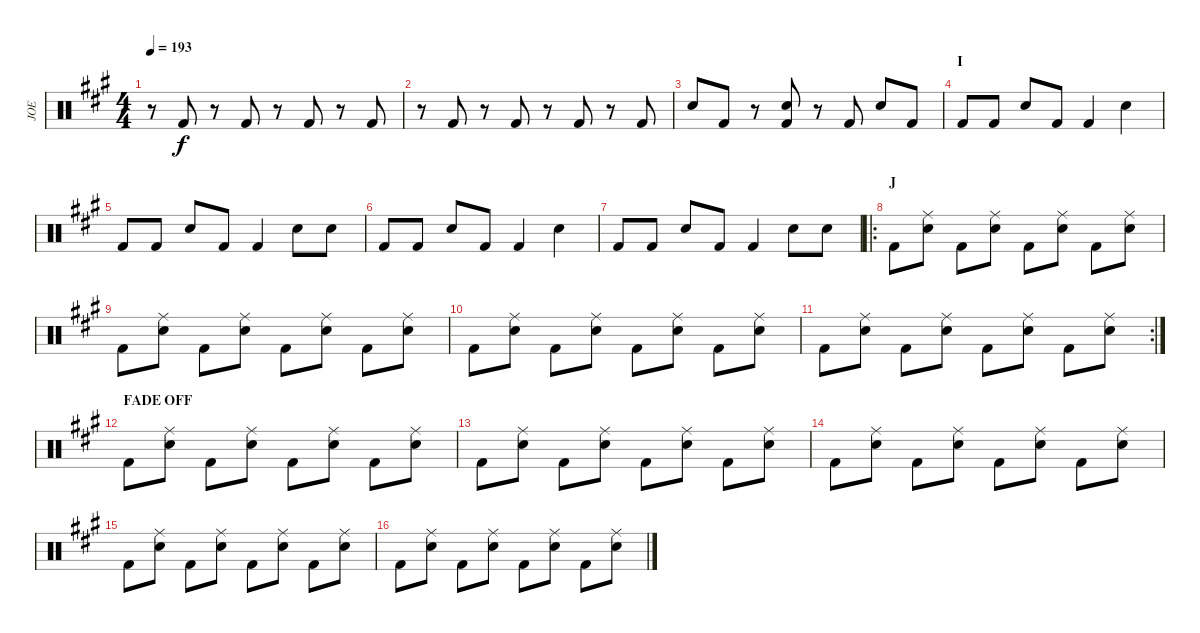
\track ("JOE" "JOE") {instrument percussion}
\staff {score}
\articulation defaults
\ts (4 4)
\tempo 193
\clef neutral
\ks a
r.8{dy f} "Kick (hit) 2".8 r.8 "Kick (hit) 2".8 r.8 "Kick (hit) 2".8 r.8 "Kick (hit) 2".8 |
r.8 "Kick (hit) 2".8 r.8 "Kick (hit) 2".8 r.8 "Kick (hit) 2".8 r.8 "Kick (hit) 2".8 |
"Snare (hit) 2".8 "Kick (hit) 2".8 r.8 ("Snare (hit) 2" "Kick (hit) 2").8 r.8 "Kick (hit) 2".8 "Snare (hit) 2".8 "Kick (hit) 2".8 |
\section ("" "I")
"Kick (hit) 2".8 "Kick (hit) 2".8 "Snare (hit) 2".8 "Kick (hit) 2".8 "Kick (hit) 2".4 "Snare (hit) 2".4 |
"Kick (hit) 2".8 "Kick (hit) 2".8 "Snare (hit) 2".8 "Kick (hit) 2".8 "Kick (hit) 2".4 "Snare (hit) 2".8 "Snare (hit) 2".8 |
"Kick (hit) 2".8 "Kick (hit) 2".8 "Snare (hit) 2".8 "Kick (hit) 2".8 "Kick (hit) 2".4 "Snare (hit) 2".4 |
"Kick (hit) 2".8 "Kick (hit) 2".8 "Snare (hit) 2".8 "Kick (hit) 2".8 "Kick (hit) 2".4 "Snare (hit) 2".8 "Snare (hit) 2".8 |
\ro
\section ("" "J")
"Kick (hit) 2".8 ("Ride (middle)" "Snare (hit) 2").8 "Kick (hit) 2".8 ("Ride (middle)" "Snare (hit) 2").8 "Kick (hit) 2".8 ("Ride (middle)" "Snare (hit) 2").8 "Kick (hit) 2".8 ("Ride (middle)" "Snare (hit) 2").8 |
"Kick (hit) 2".8 ("Ride (middle)" "Snare (hit) 2").8 "Kick (hit) 2".8 ("Ride (middle)" "Snare (hit) 2").8 "Kick (hit) 2".8 ("Ride (middle)" "Snare (hit) 2").8 "Kick (hit) 2".8 ("Ride (middle)" "Snare (hit) 2").8 |
"Kick (hit) 2".8 ("Ride (middle)" "Snare (hit) 2").8 "Kick (hit) 2".8 ("Ride (middle)" "Snare (hit) 2").8 "Kick (hit) 2".8 ("Ride (middle)" "Snare (hit) 2").8 "Kick (hit) 2".8 ("Ride (middle)" "Snare (hit) 2").8 |
\rc 2 "Kick (hit) 2".8
("Ride (middle)" "Snare (hit) 2").8 "Kick (hit) 2".8 ("Ride (middle)" "Snare (hit) 2").8 "Kick (hit) 2".8 ("Ride (middle)" "Snare (hit) 2").8 "Kick (hit) 2".8 ("Ride (middle)" "Snare (hit) 2").8 |
\section ("" "FADE OFF")
"Kick (hit) 2".8 ("Ride (middle)" "Snare (hit) 2").8 "Kick (hit) 2".8 ("Ride (middle)" "Snare (hit) 2").8 "Kick (hit) 2".8 ("Ride (middle)" "Snare (hit) 2").8 "Kick (hit) 2".8 ("Ride (middle)" "Snare (hit) 2").8 |
"Kick (hit) 2".8 ("Ride (middle)" "Snare (hit) 2").8 "Kick (hit) 2".8 ("Ride (middle)" "Snare (hit) 2").8 "Kick (hit) 2".8 ("Ride (middle)" "Snare (hit) 2").8 "Kick (hit) 2".8 ("Ride (middle)" "Snare (hit) 2").8 |
"Kick (hit) 2".8 ("Ride (middle)" "Snare (hit) 2").8 "Kick (hit) 2".8 ("Ride (middle)" "Snare (hit) 2").8 "Kick (hit) 2".8 ("Ride (middle)" "Snare (hit) 2").8 "Kick (hit) 2".8 ("Ride (middle)" "Snare (hit) 2").8 |
"Kick (hit) 2".8 ("Ride (middle)" "Snare (hit) 2").8 "Kick (hit) 2".8 ("Ride (middle)" "Snare (hit) 2").8 "Kick (hit) 2".8 ("Ride (middle)" "Snare (hit) 2").8 "Kick (hit) 2".8 ("Ride (middle)" "Snare (hit) 2").8 |
"Kick (hit) 2".8 ("Ride (middle)" "Snare (hit) 2").8 "Kick (hit) 2".8 ("Ride (middle)" "Snare (hit) 2").8 "Kick (hit) 2".8 ("Ride (middle)" "Snare (hit) 2").8 "Kick (hit) 2".8 ("Ride (middle)" "Snare (hit) 2").8
